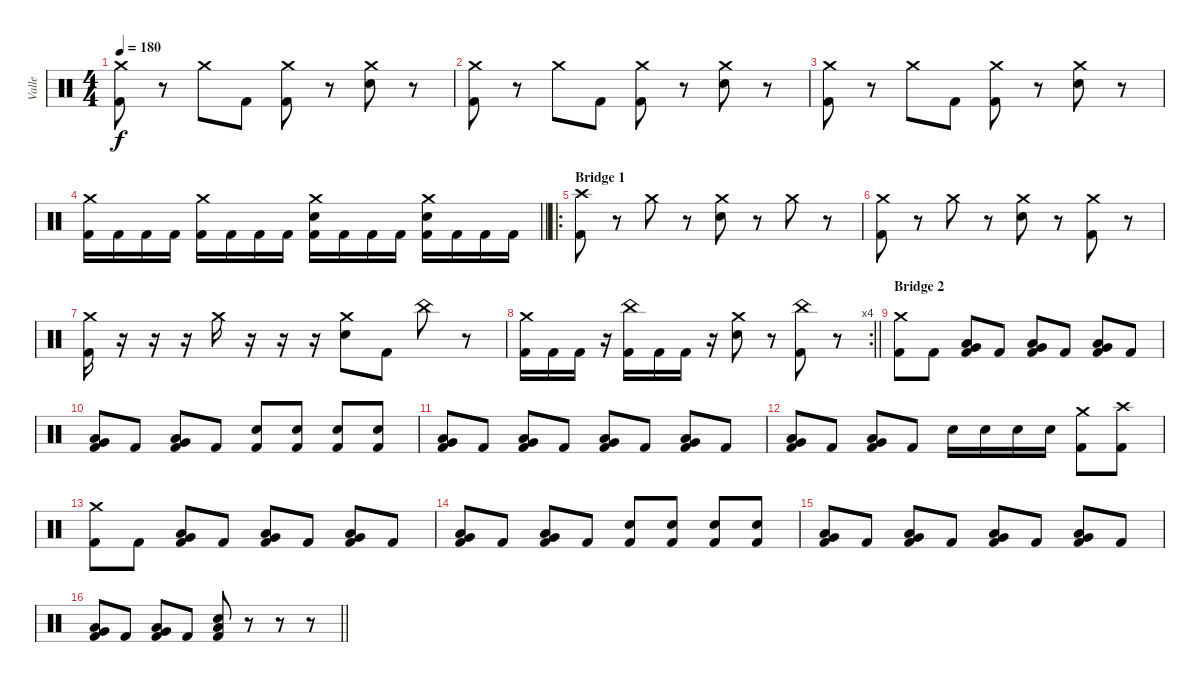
\track ("Valle" "Valle") {instrument percussion}
\staff {score}
\articulation defaults
\ts (4 4)
\tempo 180
\clef neutral
\ks c
("Crash medium (hit)" "Kick (hit) 2").8{dy f} r.8 "Crash medium (hit)".8 "Kick (hit) 2".8 ("Crash medium (hit)" "Kick (hit) 2").8 r.8 ("Crash medium (hit)" "Snare (hit) 2").8 r.8 |
("Crash medium (hit)" "Kick (hit) 2").8 r.8 "Crash medium (hit)".8 "Kick (hit) 2".8 ("Crash medium (hit)" "Kick (hit) 2").8 r.8 ("Crash medium (hit)" "Snare (hit) 2").8 r.8 |
("Crash medium (hit)" "Kick (hit) 2").8 r.8 "Crash medium (hit)".8 "Kick (hit) 2".8 ("Crash medium (hit)" "Kick (hit) 2").8 r.8 ("Crash medium (hit)" "Snare (hit) 2").8 r.8 |
\barLineRight lightlight
("Crash medium (hit)" "Kick (hit) 2").16 "Kick (hit) 2".16 "Kick (hit) 2".16 "Kick (hit) 2".16 ("Crash medium (hit)" "Kick (hit) 2").16 "Kick (hit) 2".16 "Kick (hit) 2".16 "Kick (hit) 2".16 ("Crash medium (hit)" "Snare (hit) 2" "Kick (hit) 2").16 "Kick (hit) 2".16 "Kick (hit) 2".16 "Kick (hit) 2".16 ("Crash medium (hit)" "Snare (hit) 2" "Kick (hit) 2").16 "Kick (hit) 2".16 "Kick (hit) 2".16 "Kick (hit) 2".16 |
\ro
\section ("" "Bridge 1")
("Crash high (hit)" "Kick (hit) 2").8 r.8 "Crash medium (hit)".8 r.8 ("Crash medium (hit)" "Snare (hit) 2").8 r.8 "Crash medium (hit)".8 r.8 |
("Crash medium (hit)" "Kick (hit) 2").8 r.8 "Crash medium (hit)".8 r.8 ("Crash medium (hit)" "Snare (hit) 2").8 r.8 ("Crash medium (hit)" "Kick (hit) 2").8 r.8 |
("Crash medium (hit)" "Kick (hit) 2").16 r.16 r.16 r.16 "Crash medium (hit)".16 r.16 r.16 r.16 ("Crash medium (hit)" "Snare (hit) 2").8 "Kick (hit) 2".8 "China (hit)".8 r.8 |
\rc 4
\barLineRight lightlight
("Crash medium (hit)" "Kick (hit) 2").16 "Kick (hit) 2".16 "Kick (hit) 2".16 r.16 ("China (hit)" "Kick (hit) 2").16 "Kick (hit) 2".16 "Kick (hit) 2".16 r.16 ("Crash medium (hit)" "Snare (hit) 2").8 r.8 ("China (hit)" "Kick (hit) 2").8 r.8 |
\section ("" "Bridge 2")
("Crash medium (hit)" "Kick (hit) 2").8 "Kick (hit) 2".8 ("Very Low Tom (hit)" "Low Floor Tom (hit)" "Kick (hit) 2").8 "Kick (hit) 2".8 ("Very Low Tom (hit)" "Low Floor Tom (hit)" "Kick (hit) 2").8 "Kick (hit) 2".8 ("Very Low Tom (hit)" "Low Floor Tom (hit)" "Kick (hit) 2").8 "Kick (hit) 2".8 |
("Very Low Tom (hit)" "Low Floor Tom (hit)" "Kick (hit) 2").8 "Kick (hit) 2".8 ("Very Low Tom (hit)" "Low Floor Tom (hit)" "Kick (hit) 2").8 "Kick (hit) 2".8 ("Snare (hit) 2" "Kick (hit) 2").8 ("Snare (hit) 2" "Kick (hit) 2").8 ("Snare (hit) 2" "Kick (hit) 2").8 ("Snare (hit) 2" "Kick (hit) 2").8 |
("Very Low Tom (hit)" "Low Floor Tom (hit)" "Kick (hit) 2").8 "Kick (hit) 2".8 ("Very Low Tom (hit)" "Low Floor Tom (hit)" "Kick (hit) 2").8 "Kick (hit) 2".8 ("Very Low Tom (hit)" "Low Floor Tom (hit)" "Kick (hit) 2").8 "Kick (hit) 2".8 ("Very Low Tom (hit)" "Low Floor Tom (hit)" "Kick (hit) 2").8 "Kick (hit) 2".8 |
("Very Low Tom (hit)" "Low Floor Tom (hit)" "Kick (hit) 2").8 "Kick (hit) 2".8 ("Very Low Tom (hit)" "Low Floor Tom (hit)" "Kick (hit) 2").8 "Kick (hit) 2".8 "Snare (hit) 2".16 "Snare (hit) 2".16 "Snare (hit) 2".16 "Snare (hit) 2".16 ("Crash medium (hit)" "Kick (hit) 2").8 ("Crash high (hit)" "Kick (hit) 2").8 |
("Crash medium (hit)" "Kick (hit) 2").8 "Kick (hit) 2".8 ("Very Low Tom (hit)" "Low Floor Tom (hit)" "Kick (hit) 2").8 "Kick (hit) 2".8 ("Very Low Tom (hit)" "Low Floor Tom (hit)" "Kick (hit) 2").8 "Kick (hit) 2".8 ("Very Low Tom (hit)" "Low Floor Tom (hit)" "Kick (hit) 2").8 "Kick (hit) 2".8 |
("Very Low Tom (hit)" "Low Floor Tom (hit)" "Kick (hit) 2").8 "Kick (hit) 2".8 ("Very Low Tom (hit)" "Low Floor Tom (hit)" "Kick (hit) 2").8 "Kick (hit) 2".8 ("Snare (hit) 2" "Kick (hit) 2").8 ("Snare (hit) 2" "Kick (hit) 2").8 ("Snare (hit) 2" "Kick (hit) 2").8 ("Snare (hit) 2" "Kick (hit) 2").8 |
("Very Low Tom (hit)" "Low Floor Tom (hit)" "Kick (hit) 2").8 "Kick (hit) 2".8 ("Very Low Tom (hit)" "Low Floor Tom (hit)" "Kick (hit) 2").8 "Kick (hit) 2".8 ("Very Low Tom (hit)" "Low Floor Tom (hit)" "Kick (hit) 2").8 "Kick (hit) 2".8 ("Very Low Tom (hit)" "Low Floor Tom (hit)" "Kick (hit) 2").8 "Kick (hit) 2".8 |
\barLineRight lightlight
("Very Low Tom (hit)" "Low Floor Tom (hit)" "Kick (hit) 2").8 "Kick (hit) 2".8 ("Very Low Tom (hit)" "Low Floor Tom (hit)" "Kick (hit) 2").8 "Kick (hit) 2".8 ("Low Floor Tom (hit)" "Snare (hit) 2" "Kick (hit) 2").8 r.8 r.8 r.8
